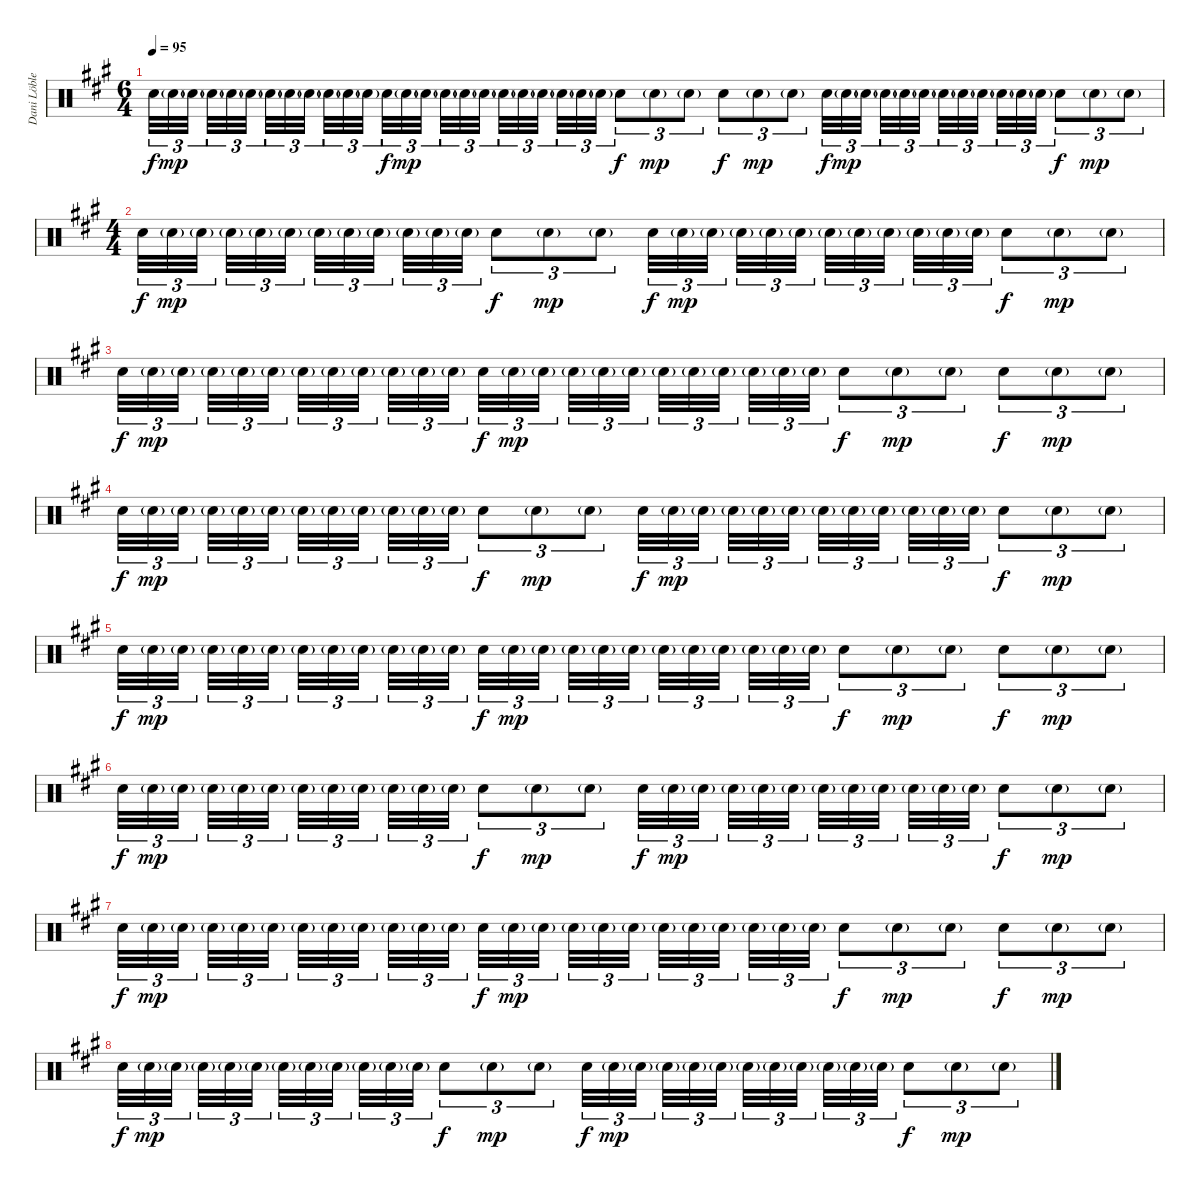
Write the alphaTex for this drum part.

\track ("Dani Löble" "Dani Löble") {instrument percussion}
\staff {score}
\articulation defaults
\ts (6 4)
\tempo 95
\clef neutral
\ks f#minor "Electric Snare (hit)".32{tu (3 2) dy f} "Electric Snare (hit)"{g}.32{tu (3 2) dy mp} "Electric Snare (hit)"{g}.32{tu (3 2) beam splitsecondary} "Electric Snare (hit)"{g}.32{tu (3 2)} "Electric Snare (hit)"{g}.32{tu (3 2)} "Electric Snare (hit)"{g}.32{tu (3 2) beam splitsecondary} "Electric Snare (hit)"{g}.32{tu (3 2)} "Electric Snare (hit)"{g}.32{tu (3 2)} "Electric Snare (hit)"{g}.32{tu (3 2) beam splitsecondary} "Electric Snare (hit)"{g}.32{tu (3 2)} "Electric Snare (hit)"{g}.32{tu (3 2)} "Electric Snare (hit)"{g}.32{tu (3 2) beam splitsecondary} "Electric Snare (hit)".32{tu (3 2) dy f} "Electric Snare (hit)"{g}.32{tu (3 2) dy mp} "Electric Snare (hit)"{g}.32{tu (3 2) beam splitsecondary} "Electric Snare (hit)"{g}.32{tu (3 2)} "Electric Snare (hit)"{g}.32{tu (3 2)} "Electric Snare (hit)"{g}.32{tu (3 2) beam splitsecondary} "Electric Snare (hit)"{g}.32{tu (3 2)} "Electric Snare (hit)"{g}.32{tu (3 2)} "Electric Snare (hit)"{g}.32{tu (3 2) beam splitsecondary} "Electric Snare (hit)"{g}.32{tu (3 2)} "Electric Snare (hit)"{g}.32{tu (3 2)} "Electric Snare (hit)"{g}.32{tu (3 2)} "Electric Snare (hit)".8{tu (3 2) dy f} "Electric Snare (hit)"{g}.8{tu (3 2) dy mp} "Electric Snare (hit)"{g}.8{tu (3 2)} "Electric Snare (hit)".8{tu (3 2) dy f} "Electric Snare (hit)"{g}.8{tu (3 2) dy mp} "Electric Snare (hit)"{g}.8{tu (3 2)} "Electric Snare (hit)".32{tu (3 2) dy f} "Electric Snare (hit)"{g}.32{tu (3 2) dy mp} "Electric Snare (hit)"{g}.32{tu (3 2) beam splitsecondary} "Electric Snare (hit)"{g}.32{tu (3 2)} "Electric Snare (hit)"{g}.32{tu (3 2)} "Electric Snare (hit)"{g}.32{tu (3 2) beam splitsecondary} "Electric Snare (hit)"{g}.32{tu (3 2)} "Electric Snare (hit)"{g}.32{tu (3 2)} "Electric Snare (hit)"{g}.32{tu (3 2) beam splitsecondary} "Electric Snare (hit)"{g}.32{tu (3 2)} "Electric Snare (hit)"{g}.32{tu (3 2)} "Electric Snare (hit)"{g}.32{tu (3 2)} "Electric Snare (hit)".8{tu (3 2) dy f} "Electric Snare (hit)"{g}.8{tu (3 2) dy mp} "Electric Snare (hit)"{g}.8{tu (3 2)}
|
\ts (4 4)
"Electric Snare (hit)".32{tu (3 2) dy f} "Electric Snare (hit)"{g}.32{tu (3 2) dy mp} "Electric Snare (hit)"{g}.32{tu (3 2) beam splitsecondary} "Electric Snare (hit)"{g}.32{tu (3 2)} "Electric Snare (hit)"{g}.32{tu (3 2)} "Electric Snare (hit)"{g}.32{tu (3 2) beam splitsecondary} "Electric Snare (hit)"{g}.32{tu (3 2)} "Electric Snare (hit)"{g}.32{tu (3 2)} "Electric Snare (hit)"{g}.32{tu (3 2) beam splitsecondary} "Electric Snare (hit)"{g}.32{tu (3 2)} "Electric Snare (hit)"{g}.32{tu (3 2)} "Electric Snare (hit)"{g}.32{tu (3 2)} "Electric Snare (hit)".8{tu (3 2) dy f} "Electric Snare (hit)"{g}.8{tu (3 2) dy mp} "Electric Snare (hit)"{g}.8{tu (3 2)} "Electric Snare (hit)".32{tu (3 2) dy f} "Electric Snare (hit)"{g}.32{tu (3 2) dy mp} "Electric Snare (hit)"{g}.32{tu (3 2) beam splitsecondary} "Electric Snare (hit)"{g}.32{tu (3 2)} "Electric Snare (hit)"{g}.32{tu (3 2)} "Electric Snare (hit)"{g}.32{tu (3 2) beam splitsecondary} "Electric Snare (hit)"{g}.32{tu (3 2)} "Electric Snare (hit)"{g}.32{tu (3 2)} "Electric Snare (hit)"{g}.32{tu (3 2) beam splitsecondary} "Electric Snare (hit)"{g}.32{tu (3 2)} "Electric Snare (hit)"{g}.32{tu (3 2)} "Electric Snare (hit)"{g}.32{tu (3 2)} "Electric Snare (hit)".8{tu (3 2) dy f} "Electric Snare (hit)"{g}.8{tu (3 2) dy mp} "Electric Snare (hit)"{g}.8{tu (3 2)} |
"Electric Snare (hit)".32{tu (3 2) dy f} "Electric Snare (hit)"{g}.32{tu (3 2) dy mp} "Electric Snare (hit)"{g}.32{tu (3 2) beam splitsecondary} "Electric Snare (hit)"{g}.32{tu (3 2)} "Electric Snare (hit)"{g}.32{tu (3 2)} "Electric Snare (hit)"{g}.32{tu (3 2) beam splitsecondary} "Electric Snare (hit)"{g}.32{tu (3 2)} "Electric Snare (hit)"{g}.32{tu (3 2)} "Electric Snare (hit)"{g}.32{tu (3 2) beam splitsecondary} "Electric Snare (hit)"{g}.32{tu (3 2)} "Electric Snare (hit)"{g}.32{tu (3 2)} "Electric Snare (hit)"{g}.32{tu (3 2)} "Electric Snare (hit)".32{tu (3 2) dy f} "Electric Snare (hit)"{g}.32{tu (3 2) dy mp} "Electric Snare (hit)"{g}.32{tu (3 2) beam splitsecondary} "Electric Snare (hit)"{g}.32{tu (3 2)} "Electric Snare (hit)"{g}.32{tu (3 2)} "Electric Snare (hit)"{g}.32{tu (3 2) beam splitsecondary} "Electric Snare (hit)"{g}.32{tu (3 2)} "Electric Snare (hit)"{g}.32{tu (3 2)} "Electric Snare (hit)"{g}.32{tu (3 2) beam splitsecondary} "Electric Snare (hit)"{g}.32{tu (3 2)} "Electric Snare (hit)"{g}.32{tu (3 2)} "Electric Snare (hit)"{g}.32{tu (3 2)} "Electric Snare (hit)".8{tu (3 2) dy f} "Electric Snare (hit)"{g}.8{tu (3 2) dy mp} "Electric Snare (hit)"{g}.8{tu (3 2)} "Electric Snare (hit)".8{tu (3 2) dy f} "Electric Snare (hit)"{g}.8{tu (3 2) dy mp} "Electric Snare (hit)"{g}.8{tu (3 2)} |
"Electric Snare (hit)".32{tu (3 2) dy f} "Electric Snare (hit)"{g}.32{tu (3 2) dy mp} "Electric Snare (hit)"{g}.32{tu (3 2) beam splitsecondary} "Electric Snare (hit)"{g}.32{tu (3 2)} "Electric Snare (hit)"{g}.32{tu (3 2)} "Electric Snare (hit)"{g}.32{tu (3 2) beam splitsecondary} "Electric Snare (hit)"{g}.32{tu (3 2)} "Electric Snare (hit)"{g}.32{tu (3 2)} "Electric Snare (hit)"{g}.32{tu (3 2) beam splitsecondary} "Electric Snare (hit)"{g}.32{tu (3 2)} "Electric Snare (hit)"{g}.32{tu (3 2)} "Electric Snare (hit)"{g}.32{tu (3 2)} "Electric Snare (hit)".8{tu (3 2) dy f} "Electric Snare (hit)"{g}.8{tu (3 2) dy mp} "Electric Snare (hit)"{g}.8{tu (3 2)} "Electric Snare (hit)".32{tu (3 2) dy f} "Electric Snare (hit)"{g}.32{tu (3 2) dy mp} "Electric Snare (hit)"{g}.32{tu (3 2) beam splitsecondary} "Electric Snare (hit)"{g}.32{tu (3 2)} "Electric Snare (hit)"{g}.32{tu (3 2)} "Electric Snare (hit)"{g}.32{tu (3 2) beam splitsecondary} "Electric Snare (hit)"{g}.32{tu (3 2)} "Electric Snare (hit)"{g}.32{tu (3 2)} "Electric Snare (hit)"{g}.32{tu (3 2) beam splitsecondary} "Electric Snare (hit)"{g}.32{tu (3 2)} "Electric Snare (hit)"{g}.32{tu (3 2)} "Electric Snare (hit)"{g}.32{tu (3 2)} "Electric Snare (hit)".8{tu (3 2) dy f} "Electric Snare (hit)"{g}.8{tu (3 2) dy mp} "Electric Snare (hit)"{g}.8{tu (3 2)} |
"Electric Snare (hit)".32{tu (3 2) dy f} "Electric Snare (hit)"{g}.32{tu (3 2) dy mp} "Electric Snare (hit)"{g}.32{tu (3 2) beam splitsecondary} "Electric Snare (hit)"{g}.32{tu (3 2)} "Electric Snare (hit)"{g}.32{tu (3 2)} "Electric Snare (hit)"{g}.32{tu (3 2) beam splitsecondary} "Electric Snare (hit)"{g}.32{tu (3 2)} "Electric Snare (hit)"{g}.32{tu (3 2)} "Electric Snare (hit)"{g}.32{tu (3 2) beam splitsecondary} "Electric Snare (hit)"{g}.32{tu (3 2)} "Electric Snare (hit)"{g}.32{tu (3 2)} "Electric Snare (hit)"{g}.32{tu (3 2)} "Electric Snare (hit)".32{tu (3 2) dy f} "Electric Snare (hit)"{g}.32{tu (3 2) dy mp} "Electric Snare (hit)"{g}.32{tu (3 2) beam splitsecondary} "Electric Snare (hit)"{g}.32{tu (3 2)} "Electric Snare (hit)"{g}.32{tu (3 2)} "Electric Snare (hit)"{g}.32{tu (3 2) beam splitsecondary} "Electric Snare (hit)"{g}.32{tu (3 2)} "Electric Snare (hit)"{g}.32{tu (3 2)} "Electric Snare (hit)"{g}.32{tu (3 2) beam splitsecondary} "Electric Snare (hit)"{g}.32{tu (3 2)} "Electric Snare (hit)"{g}.32{tu (3 2)} "Electric Snare (hit)"{g}.32{tu (3 2)} "Electric Snare (hit)".8{tu (3 2) dy f} "Electric Snare (hit)"{g}.8{tu (3 2) dy mp} "Electric Snare (hit)"{g}.8{tu (3 2)} "Electric Snare (hit)".8{tu (3 2) dy f} "Electric Snare (hit)"{g}.8{tu (3 2) dy mp} "Electric Snare (hit)"{g}.8{tu (3 2)} |
"Electric Snare (hit)".32{tu (3 2) dy f} "Electric Snare (hit)"{g}.32{tu (3 2) dy mp} "Electric Snare (hit)"{g}.32{tu (3 2) beam splitsecondary} "Electric Snare (hit)"{g}.32{tu (3 2)} "Electric Snare (hit)"{g}.32{tu (3 2)} "Electric Snare (hit)"{g}.32{tu (3 2) beam splitsecondary} "Electric Snare (hit)"{g}.32{tu (3 2)} "Electric Snare (hit)"{g}.32{tu (3 2)} "Electric Snare (hit)"{g}.32{tu (3 2) beam splitsecondary} "Electric Snare (hit)"{g}.32{tu (3 2)} "Electric Snare (hit)"{g}.32{tu (3 2)} "Electric Snare (hit)"{g}.32{tu (3 2)} "Electric Snare (hit)".8{tu (3 2) dy f} "Electric Snare (hit)"{g}.8{tu (3 2) dy mp} "Electric Snare (hit)"{g}.8{tu (3 2)} "Electric Snare (hit)".32{tu (3 2) dy f} "Electric Snare (hit)"{g}.32{tu (3 2) dy mp} "Electric Snare (hit)"{g}.32{tu (3 2) beam splitsecondary} "Electric Snare (hit)"{g}.32{tu (3 2)} "Electric Snare (hit)"{g}.32{tu (3 2)} "Electric Snare (hit)"{g}.32{tu (3 2) beam splitsecondary} "Electric Snare (hit)"{g}.32{tu (3 2)} "Electric Snare (hit)"{g}.32{tu (3 2)} "Electric Snare (hit)"{g}.32{tu (3 2) beam splitsecondary} "Electric Snare (hit)"{g}.32{tu (3 2)} "Electric Snare (hit)"{g}.32{tu (3 2)} "Electric Snare (hit)"{g}.32{tu (3 2)} "Electric Snare (hit)".8{tu (3 2) dy f} "Electric Snare (hit)"{g}.8{tu (3 2) dy mp} "Electric Snare (hit)"{g}.8{tu (3 2)} |
"Electric Snare (hit)".32{tu (3 2) dy f} "Electric Snare (hit)"{g}.32{tu (3 2) dy mp} "Electric Snare (hit)"{g}.32{tu (3 2) beam splitsecondary} "Electric Snare (hit)"{g}.32{tu (3 2)} "Electric Snare (hit)"{g}.32{tu (3 2)} "Electric Snare (hit)"{g}.32{tu (3 2) beam splitsecondary} "Electric Snare (hit)"{g}.32{tu (3 2)} "Electric Snare (hit)"{g}.32{tu (3 2)} "Electric Snare (hit)"{g}.32{tu (3 2) beam splitsecondary} "Electric Snare (hit)"{g}.32{tu (3 2)} "Electric Snare (hit)"{g}.32{tu (3 2)} "Electric Snare (hit)"{g}.32{tu (3 2)} "Electric Snare (hit)".32{tu (3 2) dy f} "Electric Snare (hit)"{g}.32{tu (3 2) dy mp} "Electric Snare (hit)"{g}.32{tu (3 2) beam splitsecondary} "Electric Snare (hit)"{g}.32{tu (3 2)} "Electric Snare (hit)"{g}.32{tu (3 2)} "Electric Snare (hit)"{g}.32{tu (3 2) beam splitsecondary} "Electric Snare (hit)"{g}.32{tu (3 2)} "Electric Snare (hit)"{g}.32{tu (3 2)} "Electric Snare (hit)"{g}.32{tu (3 2) beam splitsecondary} "Electric Snare (hit)"{g}.32{tu (3 2)} "Electric Snare (hit)"{g}.32{tu (3 2)} "Electric Snare (hit)"{g}.32{tu (3 2)} "Electric Snare (hit)".8{tu (3 2) dy f} "Electric Snare (hit)"{g}.8{tu (3 2) dy mp} "Electric Snare (hit)"{g}.8{tu (3 2)} "Electric Snare (hit)".8{tu (3 2) dy f} "Electric Snare (hit)"{g}.8{tu (3 2) dy mp} "Electric Snare (hit)"{g}.8{tu (3 2)} |
"Electric Snare (hit)".32{tu (3 2) dy f} "Electric Snare (hit)"{g}.32{tu (3 2) dy mp} "Electric Snare (hit)"{g}.32{tu (3 2) beam splitsecondary} "Electric Snare (hit)"{g}.32{tu (3 2)} "Electric Snare (hit)"{g}.32{tu (3 2)} "Electric Snare (hit)"{g}.32{tu (3 2) beam splitsecondary} "Electric Snare (hit)"{g}.32{tu (3 2)} "Electric Snare (hit)"{g}.32{tu (3 2)} "Electric Snare (hit)"{g}.32{tu (3 2) beam splitsecondary} "Electric Snare (hit)"{g}.32{tu (3 2)} "Electric Snare (hit)"{g}.32{tu (3 2)} "Electric Snare (hit)"{g}.32{tu (3 2)} "Electric Snare (hit)".8{tu (3 2) dy f} "Electric Snare (hit)"{g}.8{tu (3 2) dy mp} "Electric Snare (hit)"{g}.8{tu (3 2)} "Electric Snare (hit)".32{tu (3 2) dy f} "Electric Snare (hit)"{g}.32{tu (3 2) dy mp} "Electric Snare (hit)"{g}.32{tu (3 2) beam splitsecondary} "Electric Snare (hit)"{g}.32{tu (3 2)} "Electric Snare (hit)"{g}.32{tu (3 2)} "Electric Snare (hit)"{g}.32{tu (3 2) beam splitsecondary} "Electric Snare (hit)"{g}.32{tu (3 2)} "Electric Snare (hit)"{g}.32{tu (3 2)} "Electric Snare (hit)"{g}.32{tu (3 2) beam splitsecondary} "Electric Snare (hit)"{g}.32{tu (3 2)} "Electric Snare (hit)"{g}.32{tu (3 2)} "Electric Snare (hit)"{g}.32{tu (3 2)} "Electric Snare (hit)".8{tu (3 2) dy f} "Electric Snare (hit)"{g}.8{tu (3 2) dy mp} "Electric Snare (hit)"{g}.8{tu (3 2)}
